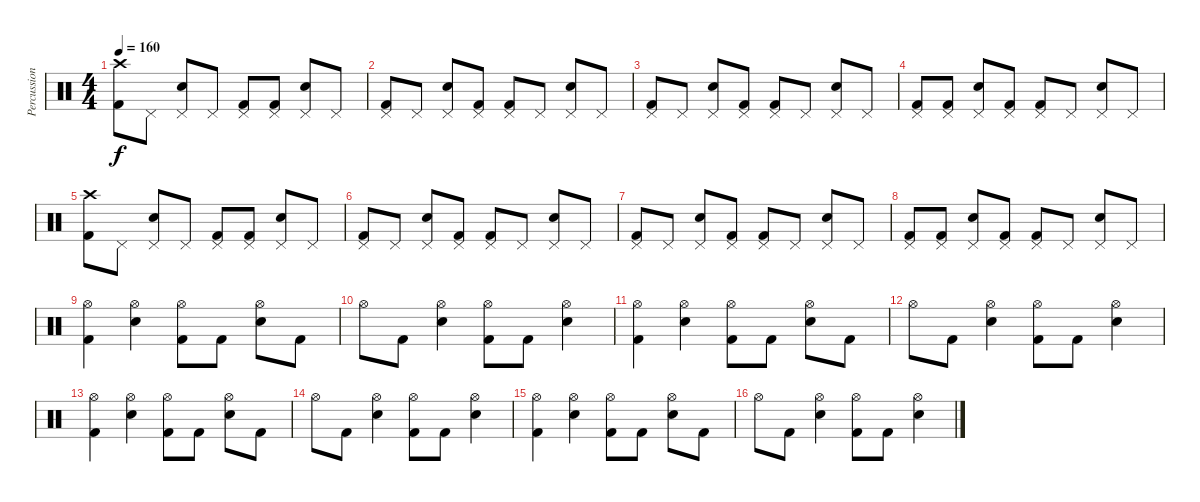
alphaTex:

\track ("Percussion" "Percussion") {instrument percussion}
\staff {score}
\articulation defaults
\ts (4 4)
\tempo 160
\clef neutral
\ks c
("Crash high (hit)" "Kick (hit) 2").8{dy f} "Pedal Hi-Hat (hit)".8 ("Pedal Hi-Hat (hit)" "Snare (hit) 2").8 "Pedal Hi-Hat (hit)".8 ("Pedal Hi-Hat (hit)" "Kick (hit) 2").8 ("Pedal Hi-Hat (hit)" "Kick (hit) 2").8 ("Pedal Hi-Hat (hit)" "Snare (hit) 2").8 "Pedal Hi-Hat (hit)".8 |
("Pedal Hi-Hat (hit)" "Kick (hit) 2").8 "Pedal Hi-Hat (hit)".8 ("Pedal Hi-Hat (hit)" "Snare (hit) 2").8 ("Pedal Hi-Hat (hit)" "Kick (hit) 2").8 ("Pedal Hi-Hat (hit)" "Kick (hit) 2").8 "Pedal Hi-Hat (hit)".8 ("Pedal Hi-Hat (hit)" "Snare (hit) 2").8 "Pedal Hi-Hat (hit)".8 |
("Pedal Hi-Hat (hit)" "Kick (hit) 2").8 "Pedal Hi-Hat (hit)".8 ("Pedal Hi-Hat (hit)" "Snare (hit) 2").8 ("Pedal Hi-Hat (hit)" "Kick (hit) 2").8 ("Pedal Hi-Hat (hit)" "Kick (hit) 2").8 "Pedal Hi-Hat (hit)".8 ("Pedal Hi-Hat (hit)" "Snare (hit) 2").8 "Pedal Hi-Hat (hit)".8 |
("Pedal Hi-Hat (hit)" "Kick (hit) 2").8 ("Pedal Hi-Hat (hit)" "Kick (hit) 2").8 ("Pedal Hi-Hat (hit)" "Snare (hit) 2").8 ("Pedal Hi-Hat (hit)" "Kick (hit) 2").8 ("Pedal Hi-Hat (hit)" "Kick (hit) 2").8 "Pedal Hi-Hat (hit)".8 ("Pedal Hi-Hat (hit)" "Snare (hit) 2").8 "Pedal Hi-Hat (hit)".8 |
("Crash high (hit)" "Kick (hit) 2").8 "Pedal Hi-Hat (hit)".8 ("Pedal Hi-Hat (hit)" "Snare (hit) 2").8 "Pedal Hi-Hat (hit)".8 ("Pedal Hi-Hat (hit)" "Kick (hit) 2").8 ("Pedal Hi-Hat (hit)" "Kick (hit) 2").8 ("Pedal Hi-Hat (hit)" "Snare (hit) 2").8 "Pedal Hi-Hat (hit)".8 |
("Pedal Hi-Hat (hit)" "Kick (hit) 2").8 "Pedal Hi-Hat (hit)".8 ("Pedal Hi-Hat (hit)" "Snare (hit) 2").8 ("Pedal Hi-Hat (hit)" "Kick (hit) 2").8 ("Pedal Hi-Hat (hit)" "Kick (hit) 2").8 "Pedal Hi-Hat (hit)".8 ("Pedal Hi-Hat (hit)" "Snare (hit) 2").8 "Pedal Hi-Hat (hit)".8 |
("Pedal Hi-Hat (hit)" "Kick (hit) 2").8 "Pedal Hi-Hat (hit)".8 ("Pedal Hi-Hat (hit)" "Snare (hit) 2").8 ("Pedal Hi-Hat (hit)" "Kick (hit) 2").8 ("Pedal Hi-Hat (hit)" "Kick (hit) 2").8 "Pedal Hi-Hat (hit)".8 ("Pedal Hi-Hat (hit)" "Snare (hit) 2").8 "Pedal Hi-Hat (hit)".8 |
("Pedal Hi-Hat (hit)" "Kick (hit) 2").8 ("Pedal Hi-Hat (hit)" "Kick (hit) 2").8 ("Pedal Hi-Hat (hit)" "Snare (hit) 2").8 ("Pedal Hi-Hat (hit)" "Kick (hit) 2").8 ("Pedal Hi-Hat (hit)" "Kick (hit) 2").8 "Pedal Hi-Hat (hit)".8 ("Pedal Hi-Hat (hit)" "Snare (hit) 2").8 "Pedal Hi-Hat (hit)".8 |
("Hi-Hat (open)" "Kick (hit) 2").4 ("Hi-Hat (open)" "Snare (hit) 2").4 ("Hi-Hat (open)" "Kick (hit) 2").8 "Kick (hit) 2".8 ("Hi-Hat (open)" "Snare (hit) 2").8 "Kick (hit) 2".8 |
"Hi-Hat (open)".8 "Kick (hit) 2".8 ("Hi-Hat (open)" "Snare (hit) 2").4 ("Hi-Hat (open)" "Kick (hit) 2").8 "Kick (hit) 2".8 ("Hi-Hat (open)" "Snare (hit) 2").4 |
("Hi-Hat (open)" "Kick (hit) 2").4 ("Hi-Hat (open)" "Snare (hit) 2").4 ("Hi-Hat (open)" "Kick (hit) 2").8 "Kick (hit) 2".8 ("Hi-Hat (open)" "Snare (hit) 2").8 "Kick (hit) 2".8 |
"Hi-Hat (open)".8 "Kick (hit) 2".8 ("Hi-Hat (open)" "Snare (hit) 2").4 ("Hi-Hat (open)" "Kick (hit) 2").8 "Kick (hit) 2".8 ("Hi-Hat (open)" "Snare (hit) 2").4 |
("Hi-Hat (open)" "Kick (hit) 2").4 ("Hi-Hat (open)" "Snare (hit) 2").4 ("Hi-Hat (open)" "Kick (hit) 2").8 "Kick (hit) 2".8 ("Hi-Hat (open)" "Snare (hit) 2").8 "Kick (hit) 2".8 |
"Hi-Hat (open)".8 "Kick (hit) 2".8 ("Hi-Hat (open)" "Snare (hit) 2").4 ("Hi-Hat (open)" "Kick (hit) 2").8 "Kick (hit) 2".8 ("Hi-Hat (open)" "Snare (hit) 2").4 |
("Hi-Hat (open)" "Kick (hit) 2").4 ("Hi-Hat (open)" "Snare (hit) 2").4 ("Hi-Hat (open)" "Kick (hit) 2").8 "Kick (hit) 2".8 ("Hi-Hat (open)" "Snare (hit) 2").8 "Kick (hit) 2".8 |
"Hi-Hat (open)".8 "Kick (hit) 2".8 ("Hi-Hat (open)" "Snare (hit) 2").4 ("Hi-Hat (open)" "Kick (hit) 2").8 "Kick (hit) 2".8 ("Hi-Hat (open)" "Snare (hit) 2").4
